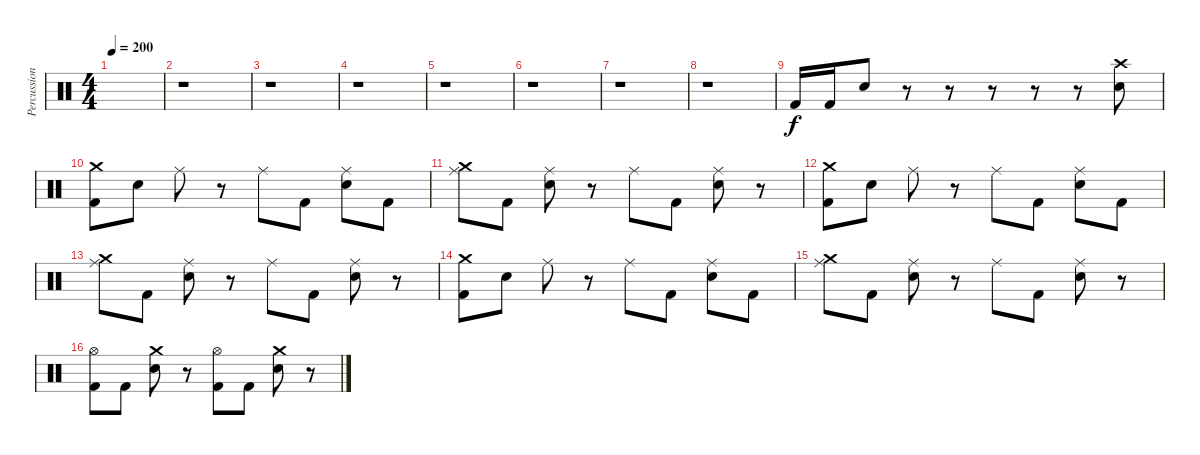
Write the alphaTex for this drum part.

\track ("Percussion" "Percussion") {instrument percussion}
\staff {score}
\articulation defaults
\ts (4 4)
\tempo 200
\clef neutral
\ks c
|
r.1 |
r.1 |
r.1 |
r.1 |
r.1 |
r.1 |
r.1 |
"Kick (hit) 2".16 "Kick (hit) 2".16 "Snare (hit) 2".8 r.8 r.8 r.8 r.8 r.8 ("Crash high (hit)" "Snare (hit) 2").8 |
("Crash medium (hit)" "Kick (hit) 2").8 "Snare (hit) 2".8 "Ride (middle)".8 r.8 "Ride (middle)".8 "Kick (hit) 2".8 ("Ride (middle)" "Snare (hit) 2").8 "Kick (hit) 2".8 |
("Crash medium (hit)" "Ride (middle)").8 "Kick (hit) 2".8 ("Ride (middle)" "Snare (hit) 2").8 r.8 "Ride (middle)".8 "Kick (hit) 2".8 ("Ride (middle)" "Snare (hit) 2").8 r.8 |
("Crash medium (hit)" "Kick (hit) 2").8 "Snare (hit) 2".8 "Ride (middle)".8 r.8 "Ride (middle)".8 "Kick (hit) 2".8 ("Ride (middle)" "Snare (hit) 2").8 "Kick (hit) 2".8 |
("Crash medium (hit)" "Ride (middle)").8 "Kick (hit) 2".8 ("Ride (middle)" "Snare (hit) 2").8 r.8 "Ride (middle)".8 "Kick (hit) 2".8 ("Ride (middle)" "Snare (hit) 2").8 r.8 |
("Crash medium (hit)" "Kick (hit) 2").8 "Snare (hit) 2".8 "Ride (middle)".8 r.8 "Ride (middle)".8 "Kick (hit) 2".8 ("Ride (middle)" "Snare (hit) 2").8 "Kick (hit) 2".8 |
("Crash medium (hit)" "Ride (middle)").8 "Kick (hit) 2".8 ("Ride (middle)" "Snare (hit) 2").8 r.8 "Ride (middle)".8 "Kick (hit) 2".8 ("Ride (middle)" "Snare (hit) 2").8 r.8 |
("Hi-Hat (open)" "Kick (hit) 2").8 "Kick (hit) 2".8 ("Crash medium (hit)" "Snare (hit) 2").8 r.8 ("Hi-Hat (open)" "Kick (hit) 2").8 "Kick (hit) 2".8 ("Crash medium (hit)" "Snare (hit) 2").8 r.8
